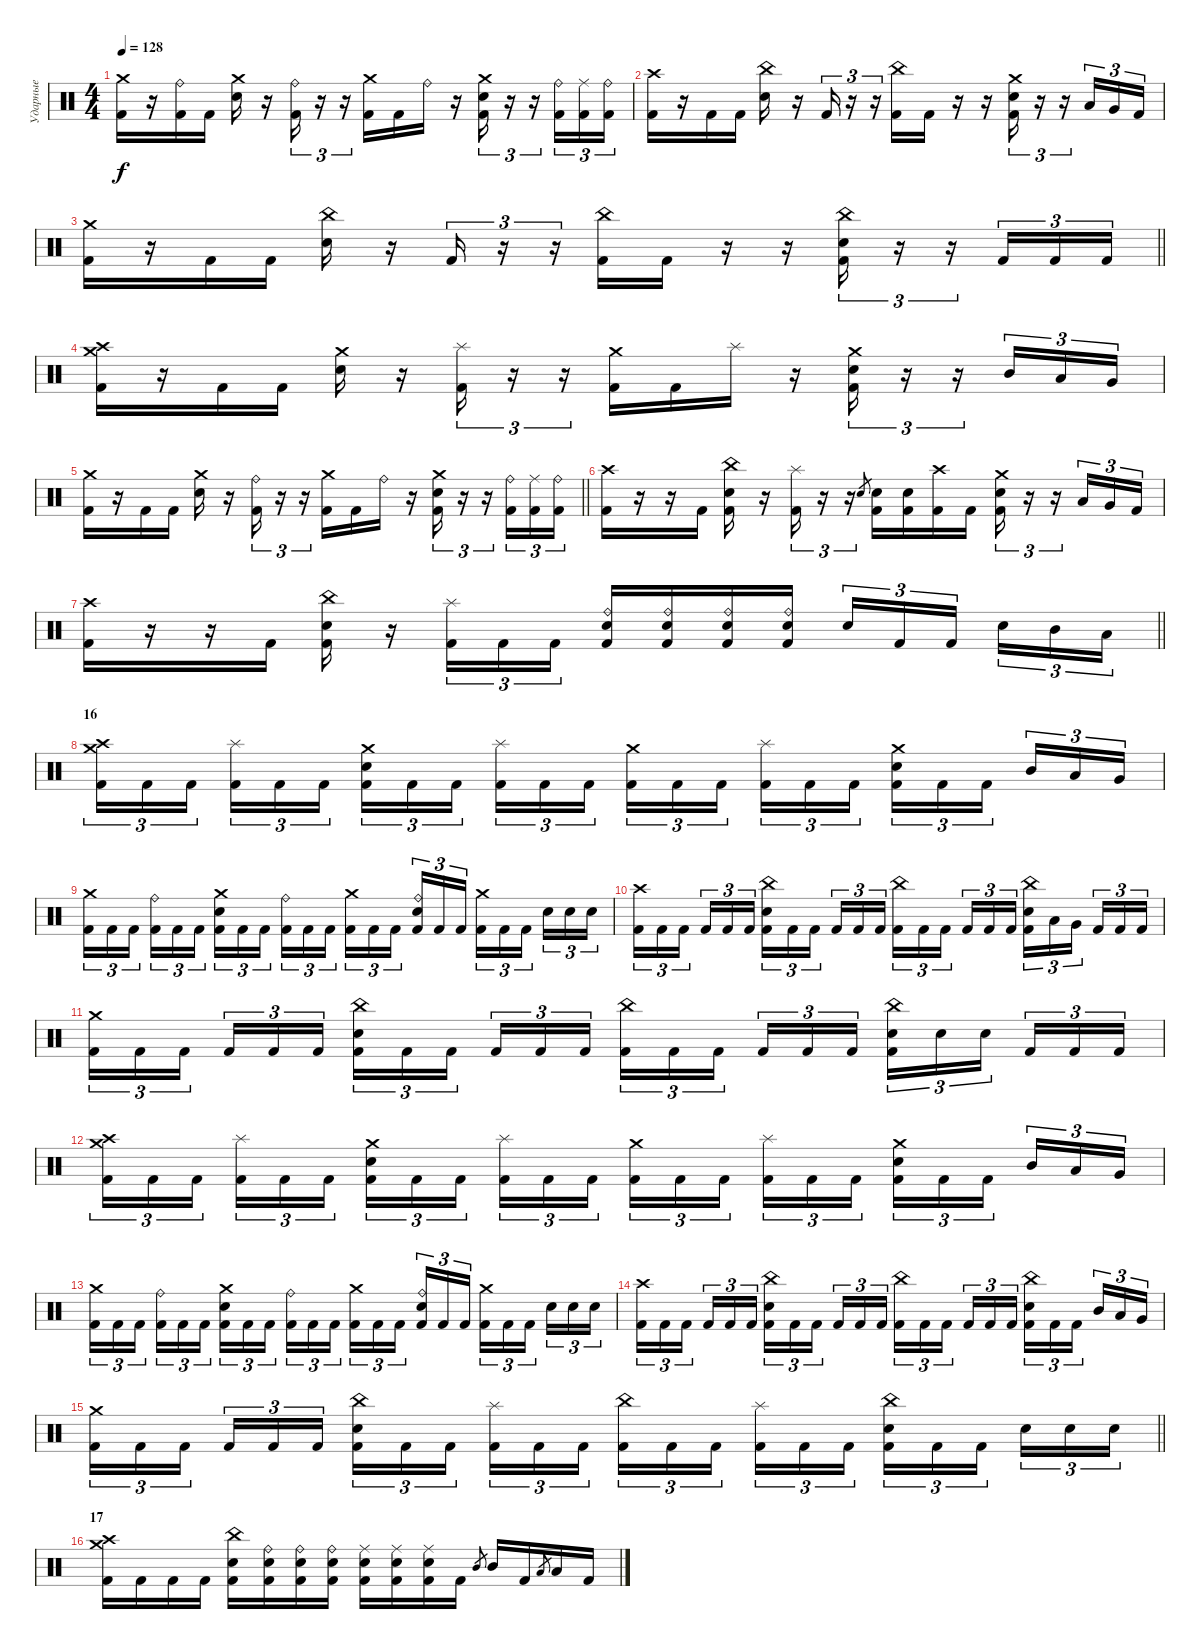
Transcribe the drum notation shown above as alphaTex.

\track ("Ударные" "Ударные") {instrument percussion}
\staff {score}
\articulation defaults
\ts (4 4)
\tempo 128
\clef neutral
\ks c
("Crash medium (hit)" "Kick (hit) 2").16{dy f} r.16 ("Ride (bell)" "Kick (hit) 2").16 "Kick (hit) 2".16 ("Crash medium (hit)" "Electric Snare (hit)").16 r.16 ("Ride (bell)" "Kick (hit) 2").16{tu (3 2)} r.16{tu (3 2)} r.16{tu (3 2)} ("Crash medium (hit)" "Kick (hit) 2").16 "Kick (hit) 2".16 "Ride (bell)".16 r.16 ("Crash medium (hit)" "Electric Snare (hit)" "Kick (hit) 2").16{tu (3 2)} r.16{tu (3 2)} r.16{tu (3 2)} ("Ride (bell)" "Kick (hit) 2").16{tu (3 2)} ("Ride (middle)" "Kick (hit) 2").16{tu (3 2)} ("Ride (bell)" "Kick (hit) 2").16{tu (3 2)} |
("Crash high (hit)" "Kick (hit) 2").16 r.16 "Kick (hit) 2".16 "Kick (hit) 2".16 ("China (hit)" "Electric Snare (hit)").16 r.16 "Kick (hit) 2".16{tu (3 2)} r.16{tu (3 2)} r.16{tu (3 2)} ("China (hit)" "Kick (hit) 2").16 "Kick (hit) 2".16 r.16 r.16 ("Crash medium (hit)" "Electric Snare (hit)" "Kick (hit) 2").16{tu (3 2)} r.16{tu (3 2)} r.16{tu (3 2)} "Low Tom (hit)".16{tu (3 2)} "Very Low Tom (hit)".16{tu (3 2)} "Kick (hit) 2".16{tu (3 2)} |
\barLineRight lightlight
("Crash medium (hit)" "Kick (hit) 2").16 r.16 "Kick (hit) 2".16 "Kick (hit) 2".16 ("China (hit)" "Electric Snare (hit)").16 r.16 "Kick (hit) 2".16{tu (3 2)} r.16{tu (3 2)} r.16{tu (3 2)} ("China (hit)" "Kick (hit) 2").16 "Kick (hit) 2".16 r.16 r.16 ("China (hit)" "Electric Snare (hit)" "Kick (hit) 2").16{tu (3 2)} r.16{tu (3 2)} r.16{tu (3 2)} "Kick (hit) 2".16{tu (3 2)} "Kick (hit) 2".16{tu (3 2)} "Kick (hit) 2".16{tu (3 2)} |
("Crash high (hit)" "Crash medium (hit)" "Kick (hit) 2").16 r.16 "Kick (hit) 2".16 "Kick (hit) 2".16 ("Crash medium (hit)" "Electric Snare (hit)").16 r.16 ("Splash (hit)" "Kick (hit) 2").16{tu (3 2)} r.16{tu (3 2)} r.16{tu (3 2)} ("Crash medium (hit)" "Kick (hit) 2").16 "Kick (hit) 2".16 "Splash (hit)".16 r.16 ("Crash medium (hit)" "Electric Snare (hit)" "Kick (hit) 2").16{tu (3 2)} r.16{tu (3 2)} r.16{tu (3 2)} "Mid Tom (hit)".16{tu (3 2)} "Low Tom (hit)".16{tu (3 2)} "Very Low Tom (hit)".16{tu (3 2)} |
\barLineRight lightlight
("Crash medium (hit)" "Kick (hit) 2").16 r.16 "Kick (hit) 2".16 "Kick (hit) 2".16 ("Crash medium (hit)" "Electric Snare (hit)").16 r.16 ("Ride (bell)" "Kick (hit) 2").16{tu (3 2)} r.16{tu (3 2)} r.16{tu (3 2)} ("Crash medium (hit)" "Kick (hit) 2").16 "Kick (hit) 2".16 "Ride (bell)".16 r.16 ("Crash medium (hit)" "Electric Snare (hit)" "Kick (hit) 2").16{tu (3 2)} r.16{tu (3 2)} r.16{tu (3 2)} ("Ride (bell)" "Kick (hit) 2").16{tu (3 2)} ("Ride (middle)" "Kick (hit) 2").16{tu (3 2)} ("Ride (bell)" "Kick (hit) 2").16{tu (3 2)} |
("Crash high (hit)" "Kick (hit) 2").16 r.16 r.16 "Kick (hit) 2".16 ("China (hit)" "Electric Snare (hit)" "Kick (hit) 2").16 r.16 ("Splash (hit)" "Kick (hit) 2").16{tu (3 2)} r.16{tu (3 2)} r.16{tu (3 2)} "Electric Snare (hit)".8{gr} ("Electric Snare (hit)" "Kick (hit) 2").16 ("Electric Snare (hit)" "Kick (hit) 2").16 ("Crash high (hit)" "Kick (hit) 2").16 "Kick (hit) 2".16 ("Crash medium (hit)" "Electric Snare (hit)" "Kick (hit) 2").16{tu (3 2)} r.16{tu (3 2)} r.16{tu (3 2)} "Low Tom (hit)".16{tu (3 2)} "Very Low Tom (hit)".16{tu (3 2)} "Kick (hit) 2".16{tu (3 2)} |
\barLineRight lightlight
("Crash high (hit)" "Kick (hit) 2").16 r.16 r.16 "Kick (hit) 2".16 ("China (hit)" "Electric Snare (hit)" "Kick (hit) 2").16 r.16 ("Splash (hit)" "Kick (hit) 2").16{tu (3 2)} "Kick (hit) 2".16{tu (3 2)} "Kick (hit) 2".16{tu (3 2)} ("Ride (bell)" "Electric Snare (hit)" "Kick (hit) 2").16 ("Ride (bell)" "Electric Snare (hit)" "Kick (hit) 2").16 ("Ride (bell)" "Electric Snare (hit)" "Kick (hit) 2").16 ("Ride (bell)" "Electric Snare (hit)" "Kick (hit) 2").16 "Electric Snare (hit)".16{tu (3 2)} "Kick (hit) 2".16{tu (3 2)} "Kick (hit) 2".16{tu (3 2) beam splitsecondary} "Electric Snare (hit)".16{tu (3 2)} "Mid Tom (hit)".16{tu (3 2)} "Low Tom (hit)".16{tu (3 2)} |
\section ("" "16")
("Crash high (hit)" "Crash medium (hit)" "Kick (hit) 2").16{tu (3 2)} "Kick (hit) 2".16{tu (3 2)} "Kick (hit) 2".16{tu (3 2) beam splitsecondary} ("Splash (hit)" "Kick (hit) 2").16{tu (3 2)} "Kick (hit) 2".16{tu (3 2)} "Kick (hit) 2".16{tu (3 2)} ("Crash medium (hit)" "Electric Snare (hit)" "Kick (hit) 2").16{tu (3 2)} "Kick (hit) 2".16{tu (3 2)} "Kick (hit) 2".16{tu (3 2) beam splitsecondary} ("Splash (hit)" "Kick (hit) 2").16{tu (3 2)} "Kick (hit) 2".16{tu (3 2)} "Kick (hit) 2".16{tu (3 2)} ("Crash medium (hit)" "Kick (hit) 2").16{tu (3 2)} "Kick (hit) 2".16{tu (3 2)} "Kick (hit) 2".16{tu (3 2) beam splitsecondary} ("Splash (hit)" "Kick (hit) 2").16{tu (3 2)} "Kick (hit) 2".16{tu (3 2)} "Kick (hit) 2".16{tu (3 2)} ("Crash medium (hit)" "Electric Snare (hit)" "Kick (hit) 2").16{tu (3 2)} "Kick (hit) 2".16{tu (3 2)} "Kick (hit) 2".16{tu (3 2) beam splitsecondary} "Mid Tom (hit)".16{tu (3 2)} "Low Tom (hit)".16{tu (3 2)} "Very Low Tom (hit)".16{tu (3 2)} |
("Crash medium (hit)" "Kick (hit) 2").16{tu (3 2)} "Kick (hit) 2".16{tu (3 2)} "Kick (hit) 2".16{tu (3 2) beam splitsecondary} ("Ride (bell)" "Kick (hit) 2").16{tu (3 2)} "Kick (hit) 2".16{tu (3 2)} "Kick (hit) 2".16{tu (3 2)} ("Crash medium (hit)" "Electric Snare (hit)" "Kick (hit) 2").16{tu (3 2)} "Kick (hit) 2".16{tu (3 2)} "Kick (hit) 2".16{tu (3 2) beam splitsecondary} ("Ride (bell)" "Kick (hit) 2").16{tu (3 2)} "Kick (hit) 2".16{tu (3 2)} "Kick (hit) 2".16{tu (3 2)} ("Crash medium (hit)" "Kick (hit) 2").16{tu (3 2)} "Kick (hit) 2".16{tu (3 2)} "Kick (hit) 2".16{tu (3 2) beam splitsecondary} ("Ride (bell)" "Electric Snare (hit)" "Kick (hit) 2").16{tu (3 2)} "Kick (hit) 2".16{tu (3 2)} "Kick (hit) 2".16{tu (3 2)} ("Crash medium (hit)" "Kick (hit) 2").16{tu (3 2)} "Kick (hit) 2".16{tu (3 2)} "Kick (hit) 2".16{tu (3 2) beam splitsecondary} "Electric Snare (hit)".16{tu (3 2)} "Electric Snare (hit)".16{tu (3 2)} "Electric Snare (hit)".16{tu (3 2)} |
("Crash high (hit)" "Kick (hit) 2").16{tu (3 2)} "Kick (hit) 2".16{tu (3 2)} "Kick (hit) 2".16{tu (3 2) beam splitsecondary} "Kick (hit) 2".16{tu (3 2)} "Kick (hit) 2".16{tu (3 2)} "Kick (hit) 2".16{tu (3 2)} ("China (hit)" "Electric Snare (hit)" "Kick (hit) 2").16{tu (3 2)} "Kick (hit) 2".16{tu (3 2)} "Kick (hit) 2".16{tu (3 2) beam splitsecondary} "Kick (hit) 2".16{tu (3 2)} "Kick (hit) 2".16{tu (3 2)} "Kick (hit) 2".16{tu (3 2)} ("China (hit)" "Kick (hit) 2").16{tu (3 2)} "Kick (hit) 2".16{tu (3 2)} "Kick (hit) 2".16{tu (3 2) beam splitsecondary} "Kick (hit) 2".16{tu (3 2)} "Kick (hit) 2".16{tu (3 2)} "Kick (hit) 2".16{tu (3 2)} ("China (hit)" "Electric Snare (hit)" "Kick (hit) 2").16{tu (3 2)} "Low Tom (hit)".16{tu (3 2)} "Very Low Tom (hit)".16{tu (3 2) beam splitsecondary} "Kick (hit) 2".16{tu (3 2)} "Kick (hit) 2".16{tu (3 2)} "Kick (hit) 2".16{tu (3 2)} |
("Crash medium (hit)" "Kick (hit) 2").16{tu (3 2)} "Kick (hit) 2".16{tu (3 2)} "Kick (hit) 2".16{tu (3 2) beam splitsecondary} "Kick (hit) 2".16{tu (3 2)} "Kick (hit) 2".16{tu (3 2)} "Kick (hit) 2".16{tu (3 2)} ("China (hit)" "Electric Snare (hit)" "Kick (hit) 2").16{tu (3 2)} "Kick (hit) 2".16{tu (3 2)} "Kick (hit) 2".16{tu (3 2) beam splitsecondary} "Kick (hit) 2".16{tu (3 2)} "Kick (hit) 2".16{tu (3 2)} "Kick (hit) 2".16{tu (3 2)} ("China (hit)" "Kick (hit) 2").16{tu (3 2)} "Kick (hit) 2".16{tu (3 2)} "Kick (hit) 2".16{tu (3 2) beam splitsecondary} "Kick (hit) 2".16{tu (3 2)} "Kick (hit) 2".16{tu (3 2)} "Kick (hit) 2".16{tu (3 2)} ("China (hit)" "Electric Snare (hit)" "Kick (hit) 2").16{tu (3 2)} "Electric Snare (hit)".16{tu (3 2)} "Electric Snare (hit)".16{tu (3 2) beam splitsecondary} "Kick (hit) 2".16{tu (3 2)} "Kick (hit) 2".16{tu (3 2)} "Kick (hit) 2".16{tu (3 2)} |
("Crash high (hit)" "Crash medium (hit)" "Kick (hit) 2").16{tu (3 2)} "Kick (hit) 2".16{tu (3 2)} "Kick (hit) 2".16{tu (3 2) beam splitsecondary} ("Splash (hit)" "Kick (hit) 2").16{tu (3 2)} "Kick (hit) 2".16{tu (3 2)} "Kick (hit) 2".16{tu (3 2)} ("Crash medium (hit)" "Electric Snare (hit)" "Kick (hit) 2").16{tu (3 2)} "Kick (hit) 2".16{tu (3 2)} "Kick (hit) 2".16{tu (3 2) beam splitsecondary} ("Splash (hit)" "Kick (hit) 2").16{tu (3 2)} "Kick (hit) 2".16{tu (3 2)} "Kick (hit) 2".16{tu (3 2)} ("Crash medium (hit)" "Kick (hit) 2").16{tu (3 2)} "Kick (hit) 2".16{tu (3 2)} "Kick (hit) 2".16{tu (3 2) beam splitsecondary} ("Splash (hit)" "Kick (hit) 2").16{tu (3 2)} "Kick (hit) 2".16{tu (3 2)} "Kick (hit) 2".16{tu (3 2)} ("Crash medium (hit)" "Electric Snare (hit)" "Kick (hit) 2").16{tu (3 2)} "Kick (hit) 2".16{tu (3 2)} "Kick (hit) 2".16{tu (3 2) beam splitsecondary} "Mid Tom (hit)".16{tu (3 2)} "Low Tom (hit)".16{tu (3 2)} "Very Low Tom (hit)".16{tu (3 2)} |
("Crash medium (hit)" "Kick (hit) 2").16{tu (3 2)} "Kick (hit) 2".16{tu (3 2)} "Kick (hit) 2".16{tu (3 2) beam splitsecondary} ("Ride (bell)" "Kick (hit) 2").16{tu (3 2)} "Kick (hit) 2".16{tu (3 2)} "Kick (hit) 2".16{tu (3 2)} ("Crash medium (hit)" "Electric Snare (hit)" "Kick (hit) 2").16{tu (3 2)} "Kick (hit) 2".16{tu (3 2)} "Kick (hit) 2".16{tu (3 2) beam splitsecondary} ("Ride (bell)" "Kick (hit) 2").16{tu (3 2)} "Kick (hit) 2".16{tu (3 2)} "Kick (hit) 2".16{tu (3 2)} ("Crash medium (hit)" "Kick (hit) 2").16{tu (3 2)} "Kick (hit) 2".16{tu (3 2)} "Kick (hit) 2".16{tu (3 2) beam splitsecondary} ("Ride (bell)" "Electric Snare (hit)" "Kick (hit) 2").16{tu (3 2)} "Kick (hit) 2".16{tu (3 2)} "Kick (hit) 2".16{tu (3 2)} ("Crash medium (hit)" "Kick (hit) 2").16{tu (3 2)} "Kick (hit) 2".16{tu (3 2)} "Kick (hit) 2".16{tu (3 2) beam splitsecondary} "Electric Snare (hit)".16{tu (3 2)} "Electric Snare (hit)".16{tu (3 2)} "Electric Snare (hit)".16{tu (3 2)} |
("Crash high (hit)" "Kick (hit) 2").16{tu (3 2)} "Kick (hit) 2".16{tu (3 2)} "Kick (hit) 2".16{tu (3 2) beam splitsecondary} "Kick (hit) 2".16{tu (3 2)} "Kick (hit) 2".16{tu (3 2)} "Kick (hit) 2".16{tu (3 2)} ("China (hit)" "Electric Snare (hit)" "Kick (hit) 2").16{tu (3 2)} "Kick (hit) 2".16{tu (3 2)} "Kick (hit) 2".16{tu (3 2) beam splitsecondary} "Kick (hit) 2".16{tu (3 2)} "Kick (hit) 2".16{tu (3 2)} "Kick (hit) 2".16{tu (3 2)} ("China (hit)" "Kick (hit) 2").16{tu (3 2)} "Kick (hit) 2".16{tu (3 2)} "Kick (hit) 2".16{tu (3 2) beam splitsecondary} "Kick (hit) 2".16{tu (3 2)} "Kick (hit) 2".16{tu (3 2)} "Kick (hit) 2".16{tu (3 2)} ("China (hit)" "Electric Snare (hit)" "Kick (hit) 2").16{tu (3 2)} "Kick (hit) 2".16{tu (3 2)} "Kick (hit) 2".16{tu (3 2) beam splitsecondary} "Mid Tom (hit)".16{tu (3 2)} "Low Tom (hit)".16{tu (3 2)} "Very Low Tom (hit)".16{tu (3 2)} |
\barLineRight lightlight
("Crash medium (hit)" "Kick (hit) 2").16{tu (3 2)} "Kick (hit) 2".16{tu (3 2)} "Kick (hit) 2".16{tu (3 2) beam splitsecondary} "Kick (hit) 2".16{tu (3 2)} "Kick (hit) 2".16{tu (3 2)} "Kick (hit) 2".16{tu (3 2)} ("China (hit)" "Electric Snare (hit)" "Kick (hit) 2").16{tu (3 2)} "Kick (hit) 2".16{tu (3 2)} "Kick (hit) 2".16{tu (3 2) beam splitsecondary} ("Splash (hit)" "Kick (hit) 2").16{tu (3 2)} "Kick (hit) 2".16{tu (3 2)} "Kick (hit) 2".16{tu (3 2)} ("China (hit)" "Kick (hit) 2").16{tu (3 2)} "Kick (hit) 2".16{tu (3 2)} "Kick (hit) 2".16{tu (3 2) beam splitsecondary} ("Splash (hit)" "Kick (hit) 2").16{tu (3 2)} "Kick (hit) 2".16{tu (3 2)} "Kick (hit) 2".16{tu (3 2)} ("China (hit)" "Electric Snare (hit)" "Kick (hit) 2").16{tu (3 2)} "Kick (hit) 2".16{tu (3 2)} "Kick (hit) 2".16{tu (3 2) beam splitsecondary} "Electric Snare (hit)".16{tu (3 2)} "Electric Snare (hit)".16{tu (3 2)} "Electric Snare (hit)".16{tu (3 2)} |
\section ("" "17")
("Crash medium (hit)" "Crash high (hit)" "Kick (hit) 2").16 "Kick (hit) 2".16 "Kick (hit) 2".16 "Kick (hit) 2".16 ("China (hit)" "Electric Snare (hit)" "Kick (hit) 2").16 ("Ride (bell)" "Electric Snare (hit)" "Kick (hit) 2").16 ("Ride (bell)" "Electric Snare (hit)" "Kick (hit) 2").16 ("Ride (bell)" "Electric Snare (hit)" "Kick (hit) 2").16 ("Ride (middle)" "Electric Snare (hit)" "Kick (hit) 2").16 ("Ride (middle)" "Electric Snare (hit)" "Kick (hit) 2").16 ("Ride (middle)" "Electric Snare (hit)" "Kick (hit) 2").16 "Kick (hit) 2".16 "Mid Tom (hit)".8{gr} "Mid Tom (hit)".16 "Kick (hit) 2".16 "Low Tom (hit)".8{gr} "Low Tom (hit)".16 "Kick (hit) 2".16
